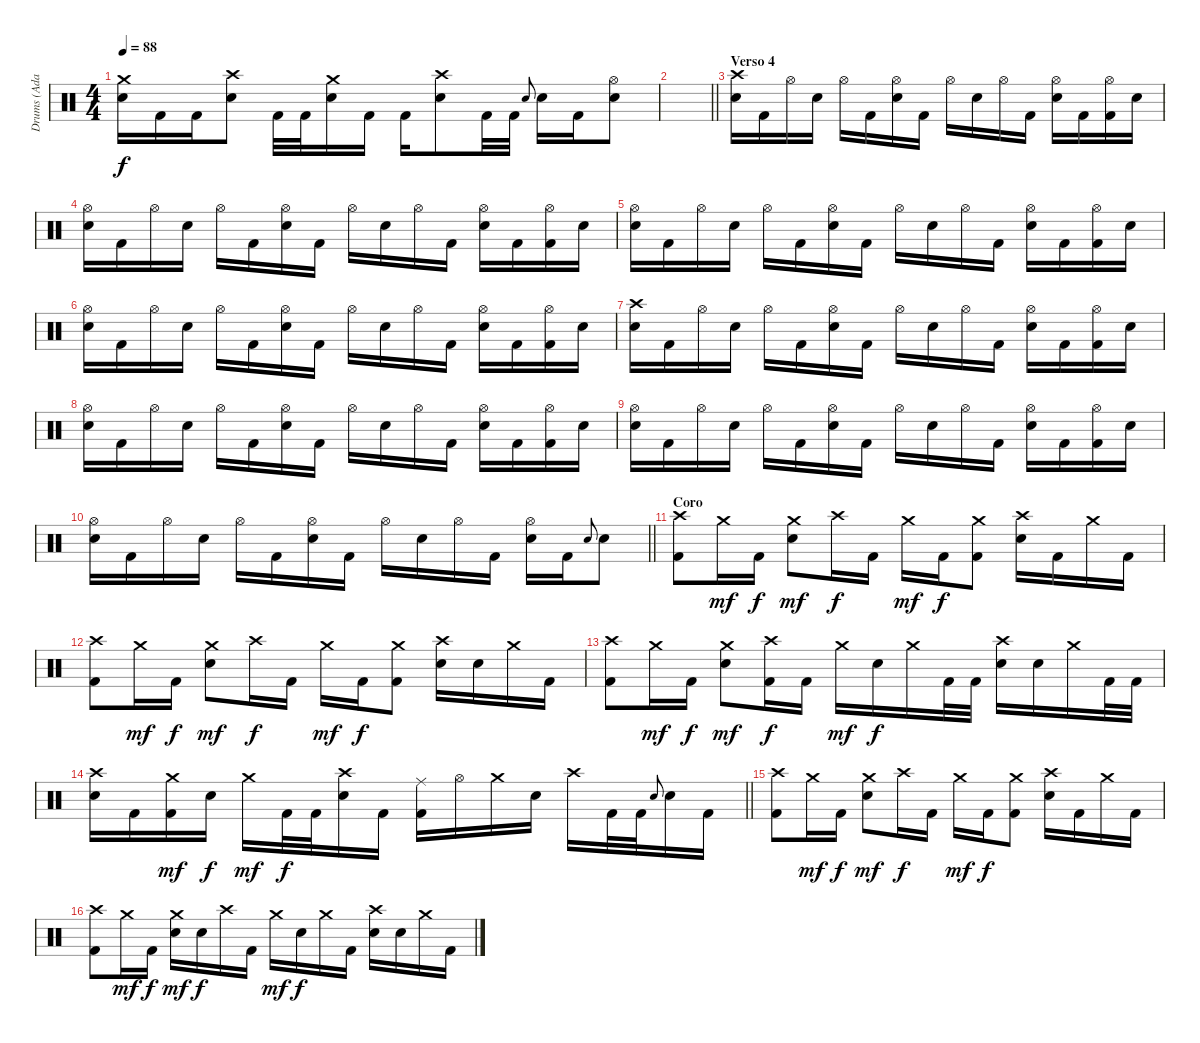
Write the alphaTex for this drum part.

\track ("Drums (Adam Morgan)" "Drums (Ada") {instrument percussion}
\staff {score}
\articulation defaults
\ts (4 4)
\tempo 88
\clef neutral
\ks c
("Crash medium (hit)" "Snare (hit) 2").16{dy f} "Kick (hit) 2".16 "Kick (hit) 2".16 ("Crash high (hit)" "Snare (hit) 2").8 "Kick (hit) 2".32 "Kick (hit) 2".32 ("Crash medium (hit)" "Snare (hit) 2").16 "Kick (hit) 2".16 "Kick (hit) 2".16 ("Crash high (hit)" "Snare (hit) 2").8 "Kick (hit) 2".32 "Kick (hit) 2".32 "Snare (hit) 2".8{gr onbeat} "Snare (hit) 2".16 "Kick (hit) 2".16 ("Hi-Hat (open)" "Snare (hit) 2").8 |
\barLineRight lightlight
|
\section ("" "Verso 4")
("Crash high (hit)" "Snare (hit) 2").16 "Kick (hit) 2".16 "Hi-Hat (open)".16 "Snare (hit) 2".16 "Hi-Hat (open)".16 "Kick (hit) 2".16 ("Hi-Hat (open)" "Snare (hit) 2").16 "Kick (hit) 2".16 "Hi-Hat (open)".16 "Snare (hit) 2".16 "Hi-Hat (open)".16 "Kick (hit) 2".16 ("Hi-Hat (open)" "Snare (hit) 2").16 "Kick (hit) 2".16 ("Hi-Hat (open)" "Kick (hit) 2").16 "Snare (hit) 2".16 |
("Hi-Hat (open)" "Snare (hit) 2").16 "Kick (hit) 2".16 "Hi-Hat (open)".16 "Snare (hit) 2".16 "Hi-Hat (open)".16 "Kick (hit) 2".16 ("Hi-Hat (open)" "Snare (hit) 2").16 "Kick (hit) 2".16 "Hi-Hat (open)".16 "Snare (hit) 2".16 "Hi-Hat (open)".16 "Kick (hit) 2".16 ("Hi-Hat (open)" "Snare (hit) 2").16 "Kick (hit) 2".16 ("Hi-Hat (open)" "Kick (hit) 2").16 "Snare (hit) 2".16 |
("Hi-Hat (open)" "Snare (hit) 2").16 "Kick (hit) 2".16 "Hi-Hat (open)".16 "Snare (hit) 2".16 "Hi-Hat (open)".16 "Kick (hit) 2".16 ("Hi-Hat (open)" "Snare (hit) 2").16 "Kick (hit) 2".16 "Hi-Hat (open)".16 "Snare (hit) 2".16 "Hi-Hat (open)".16 "Kick (hit) 2".16 ("Hi-Hat (open)" "Snare (hit) 2").16 "Kick (hit) 2".16 ("Hi-Hat (open)" "Kick (hit) 2").16 "Snare (hit) 2".16 |
("Hi-Hat (open)" "Snare (hit) 2").16 "Kick (hit) 2".16 "Hi-Hat (open)".16 "Snare (hit) 2".16 "Hi-Hat (open)".16 "Kick (hit) 2".16 ("Hi-Hat (open)" "Snare (hit) 2").16 "Kick (hit) 2".16 "Hi-Hat (open)".16 "Snare (hit) 2".16 "Hi-Hat (open)".16 "Kick (hit) 2".16 ("Hi-Hat (open)" "Snare (hit) 2").16 "Kick (hit) 2".16 ("Hi-Hat (open)" "Kick (hit) 2").16 "Snare (hit) 2".16 |
("Crash high (hit)" "Snare (hit) 2").16 "Kick (hit) 2".16 "Hi-Hat (open)".16 "Snare (hit) 2".16 "Hi-Hat (open)".16 "Kick (hit) 2".16 ("Hi-Hat (open)" "Snare (hit) 2").16 "Kick (hit) 2".16 "Hi-Hat (open)".16 "Snare (hit) 2".16 "Hi-Hat (open)".16 "Kick (hit) 2".16 ("Hi-Hat (open)" "Snare (hit) 2").16 "Kick (hit) 2".16 ("Hi-Hat (open)" "Kick (hit) 2").16 "Snare (hit) 2".16 |
("Hi-Hat (open)" "Snare (hit) 2").16 "Kick (hit) 2".16 "Hi-Hat (open)".16 "Snare (hit) 2".16 "Hi-Hat (open)".16 "Kick (hit) 2".16 ("Hi-Hat (open)" "Snare (hit) 2").16 "Kick (hit) 2".16 "Hi-Hat (open)".16 "Snare (hit) 2".16 "Hi-Hat (open)".16 "Kick (hit) 2".16 ("Hi-Hat (open)" "Snare (hit) 2").16 "Kick (hit) 2".16 ("Hi-Hat (open)" "Kick (hit) 2").16 "Snare (hit) 2".16 |
("Hi-Hat (open)" "Snare (hit) 2").16 "Kick (hit) 2".16 "Hi-Hat (open)".16 "Snare (hit) 2".16 "Hi-Hat (open)".16 "Kick (hit) 2".16 ("Hi-Hat (open)" "Snare (hit) 2").16 "Kick (hit) 2".16 "Hi-Hat (open)".16 "Snare (hit) 2".16 "Hi-Hat (open)".16 "Kick (hit) 2".16 ("Hi-Hat (open)" "Snare (hit) 2").16 "Kick (hit) 2".16 ("Hi-Hat (open)" "Kick (hit) 2").16 "Snare (hit) 2".16 |
\barLineRight lightlight
("Hi-Hat (open)" "Snare (hit) 2").16 "Kick (hit) 2".16 "Hi-Hat (open)".16 "Snare (hit) 2".16 "Hi-Hat (open)".16 "Kick (hit) 2".16 ("Hi-Hat (open)" "Snare (hit) 2").16 "Kick (hit) 2".16 "Hi-Hat (open)".16 "Snare (hit) 2".16 "Hi-Hat (open)".16 "Kick (hit) 2".16 ("Hi-Hat (open)" "Snare (hit) 2").16 "Kick (hit) 2".16 "Snare (hit) 2".8{gr onbeat} "Snare (hit) 2".8 |
\section ("" "Coro")
("Crash high (hit)" "Kick (hit) 2").8 "Crash medium (hit)".16{dy mf} "Kick (hit) 2".16{dy f} ("Crash medium (hit)" "Snare (hit) 2").8{dy mf} "Crash high (hit)".16{dy f} "Kick (hit) 2".16 "Crash medium (hit)".16{dy mf} "Kick (hit) 2".16{dy f} ("Crash medium (hit)" "Kick (hit) 2").8 ("Crash high (hit)" "Snare (hit) 2").16 "Kick (hit) 2".16 "Crash medium (hit)".16 "Kick (hit) 2".16 |
("Crash high (hit)" "Kick (hit) 2").8 "Crash medium (hit)".16{dy mf} "Kick (hit) 2".16{dy f} ("Crash medium (hit)" "Snare (hit) 2").8{dy mf} "Crash high (hit)".16{dy f} "Kick (hit) 2".16 "Crash medium (hit)".16{dy mf} "Kick (hit) 2".16{dy f} ("Crash medium (hit)" "Kick (hit) 2").8 ("Crash high (hit)" "Snare (hit) 2").16 "Snare (hit) 2".16 "Crash medium (hit)".16 "Kick (hit) 2".16 |
("Crash high (hit)" "Kick (hit) 2").8 "Crash medium (hit)".16{dy mf} "Kick (hit) 2".16{dy f} ("Crash medium (hit)" "Snare (hit) 2").8{dy mf} ("Crash high (hit)" "Kick (hit) 2").16{dy f} "Kick (hit) 2".16 "Crash medium (hit)".16{dy mf} "Snare (hit) 2".16{dy f} "Crash medium (hit)".16 "Kick (hit) 2".32 "Kick (hit) 2".32 ("Crash high (hit)" "Snare (hit) 2").16 "Snare (hit) 2".16 "Crash medium (hit)".16 "Kick (hit) 2".32 "Kick (hit) 2".32 |
\barLineRight lightlight
("Crash high (hit)" "Snare (hit) 2").16 "Kick (hit) 2".16 ("Crash medium (hit)" "Kick (hit) 2").16{dy mf} "Snare (hit) 2".16{dy f} "Crash medium (hit)".16{dy mf} "Kick (hit) 2".32{dy f} "Kick (hit) 2".32 ("Crash high (hit)" "Snare (hit) 2").16 "Kick (hit) 2".16 ("Ride (middle)" "Kick (hit) 2").16 "Hi-Hat (open)".16 "Crash medium (hit)".16 "Snare (hit) 2".16 "Crash high (hit)".16 "Kick (hit) 2".32 "Kick (hit) 2".32 "Snare (hit) 2".8{gr onbeat} "Snare (hit) 2".16 "Kick (hit) 2".16 |
("Crash high (hit)" "Kick (hit) 2").8 "Crash medium (hit)".16{dy mf} "Kick (hit) 2".16{dy f} ("Crash medium (hit)" "Snare (hit) 2").8{dy mf} "Crash high (hit)".16{dy f} "Kick (hit) 2".16 "Crash medium (hit)".16{dy mf} "Kick (hit) 2".16{dy f} ("Crash medium (hit)" "Kick (hit) 2").8 ("Crash high (hit)" "Snare (hit) 2").16 "Kick (hit) 2".16 "Crash medium (hit)".16 "Kick (hit) 2".16 |
("Crash high (hit)" "Kick (hit) 2").8 "Crash medium (hit)".16{dy mf} "Kick (hit) 2".16{dy f} ("Crash medium (hit)" "Snare (hit) 2").16{dy mf} "Snare (hit) 2".16{dy f} "Crash high (hit)".16 "Kick (hit) 2".16 "Crash medium (hit)".16{dy mf} "Snare (hit) 2".16{dy f} "Crash medium (hit)".16 "Kick (hit) 2".16 ("Crash high (hit)" "Snare (hit) 2").16 "Snare (hit) 2".16 "Crash medium (hit)".16 "Kick (hit) 2".16
